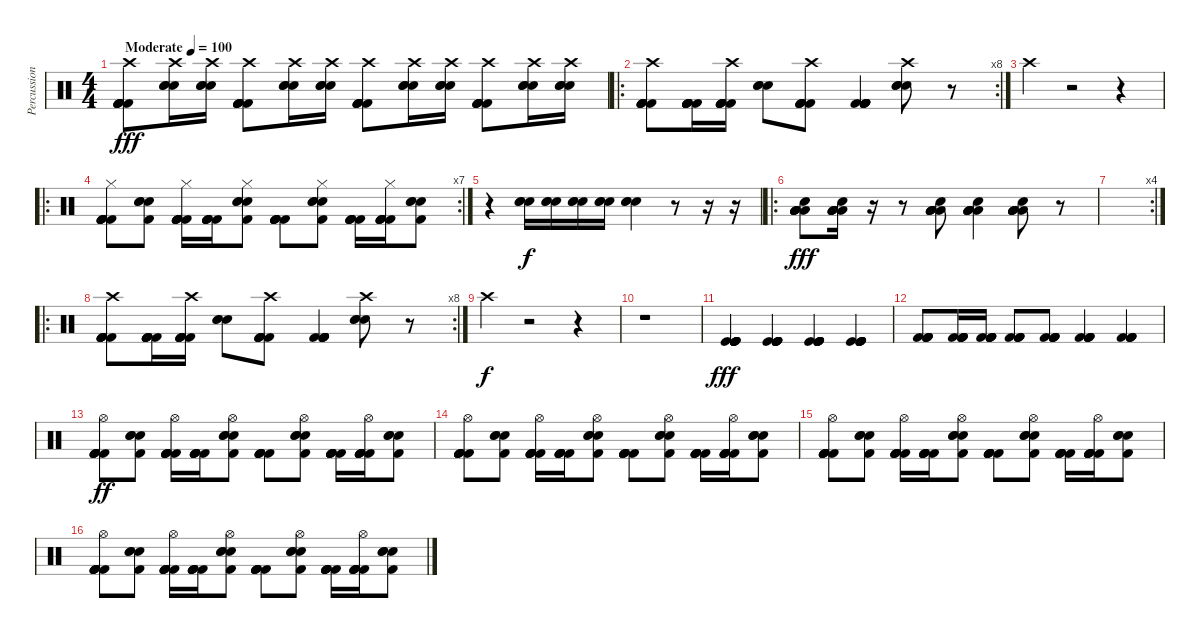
\track ("Percussion" "Percussion") {instrument percussion}
\staff {score}
\articulation defaults
\ts (4 4)
\tempo (100 "Moderate")
\clef neutral
\ks c
("Crash high (hit)" "Kick (hit) 2" "Kick (hit) 2" "Kick (hit) 2" "Kick (hit) 2" "Kick (hit) 2").8{dy fff} ("Crash high (hit)" "Snare (hit) 2" "Snare (hit) 2" "Snare (hit) 2").16 ("Crash high (hit)" "Snare (hit) 2" "Snare (hit) 2" "Snare (hit) 2").16 ("Crash high (hit)" "Kick (hit) 2" "Kick (hit) 2" "Kick (hit) 2" "Kick (hit) 2" "Kick (hit) 2").8 ("Crash high (hit)" "Snare (hit) 2" "Snare (hit) 2" "Snare (hit) 2").16 ("Crash high (hit)" "Snare (hit) 2" "Snare (hit) 2" "Snare (hit) 2").16 ("Crash high (hit)" "Kick (hit) 2" "Kick (hit) 2" "Kick (hit) 2" "Kick (hit) 2" "Kick (hit) 2").8 ("Crash high (hit)" "Snare (hit) 2" "Snare (hit) 2" "Snare (hit) 2").16 ("Crash high (hit)" "Snare (hit) 2" "Snare (hit) 2" "Snare (hit) 2").16 ("Crash high (hit)" "Kick (hit) 2" "Kick (hit) 2" "Kick (hit) 2" "Kick (hit) 2" "Kick (hit) 2").8 ("Crash high (hit)" "Snare (hit) 2" "Snare (hit) 2" "Snare (hit) 2").16 ("Crash high (hit)" "Snare (hit) 2" "Snare (hit) 2" "Snare (hit) 2").16 |
\ro
\rc 8
("Crash high (hit)" "Kick (hit) 2" "Kick (hit) 2" "Kick (hit) 2" "Kick (hit) 2" "Kick (hit) 2").8 ("Kick (hit) 2" "Kick (hit) 2" "Kick (hit) 2" "Kick (hit) 2" "Kick (hit) 2" "Kick (hit) 2").16 ("Crash high (hit)" "Kick (hit) 2" "Kick (hit) 2" "Kick (hit) 2" "Kick (hit) 2" "Kick (hit) 2").16 ("Snare (hit) 2" "Snare (hit) 2" "Snare (hit) 2").8 ("Crash high (hit)" "Kick (hit) 2" "Kick (hit) 2" "Kick (hit) 2" "Kick (hit) 2" "Kick (hit) 2").8 ("Kick (hit) 2" "Kick (hit) 2" "Kick (hit) 2" "Kick (hit) 2" "Kick (hit) 2" "Kick (hit) 2").4 ("Crash high (hit)" "Snare (hit) 2" "Snare (hit) 2" "Snare (hit) 2").8 r.8 |
"Crash high (hit)".4 r.2 r.4 |
\ro
\rc 7
("Hi-Hat (closed)" "Kick (hit) 2" "Kick (hit) 2" "Kick (hit) 2" "Kick (hit) 2" "Kick (hit) 2").8 ("Kick (hit) 2" "Snare (hit) 2" "Snare (hit) 2" "Snare (hit) 2").8 ("Hi-Hat (closed)" "Kick (hit) 2" "Kick (hit) 2" "Kick (hit) 2" "Kick (hit) 2" "Kick (hit) 2").16 ("Kick (hit) 2" "Kick (hit) 2" "Kick (hit) 2" "Kick (hit) 2" "Kick (hit) 2").16 ("Hi-Hat (closed)" "Kick (hit) 2" "Snare (hit) 2" "Snare (hit) 2" "Snare (hit) 2").8 ("Kick (hit) 2" "Kick (hit) 2" "Kick (hit) 2" "Kick (hit) 2" "Kick (hit) 2").8 ("Hi-Hat (closed)" "Kick (hit) 2" "Snare (hit) 2" "Snare (hit) 2" "Snare (hit) 2").8 ("Kick (hit) 2" "Kick (hit) 2" "Kick (hit) 2" "Kick (hit) 2" "Kick (hit) 2").16 ("Hi-Hat (closed)" "Kick (hit) 2" "Kick (hit) 2" "Kick (hit) 2" "Kick (hit) 2" "Kick (hit) 2").16 ("Kick (hit) 2" "Snare (hit) 2" "Snare (hit) 2" "Snare (hit) 2").8 |
r.4 ("Snare (hit) 2" "Snare (hit) 2" "Snare (hit) 2").16{dy f} ("Snare (hit) 2" "Snare (hit) 2" "Snare (hit) 2").16 ("Snare (hit) 2" "Snare (hit) 2" "Snare (hit) 2").16 ("Snare (hit) 2" "Snare (hit) 2" "Snare (hit) 2").16 ("Snare (hit) 2" "Snare (hit) 2" "Snare (hit) 2").4 r.8 r.16 r.16 |
\ro
("Low Tom (hit)" "Low Tom (hit)" "Low Tom (hit)" "Low Tom (hit)" "Low Tom (hit)" "Snare (hit) 2").8{dy fff} ("Low Tom (hit)" "Low Tom (hit)" "Low Tom (hit)" "Low Tom (hit)" "Low Tom (hit)" "Snare (hit) 2").16 r.16 r.8 ("Low Tom (hit)" "Low Tom (hit)" "Low Tom (hit)" "Low Tom (hit)" "Low Tom (hit)" "Snare (hit) 2").8 ("Low Tom (hit)" "Low Tom (hit)" "Low Tom (hit)" "Low Tom (hit)" "Low Tom (hit)" "Snare (hit) 2").4 ("Low Tom (hit)" "Low Tom (hit)" "Low Tom (hit)" "Low Tom (hit)" "Low Tom (hit)" "Snare (hit) 2").8 r.8 |
\rc 4
|
\ro
\rc 8
("Crash high (hit)" "Kick (hit) 2" "Kick (hit) 2" "Kick (hit) 2" "Kick (hit) 2" "Kick (hit) 2").8 ("Kick (hit) 2" "Kick (hit) 2" "Kick (hit) 2" "Kick (hit) 2" "Kick (hit) 2" "Kick (hit) 2").16 ("Crash high (hit)" "Kick (hit) 2" "Kick (hit) 2" "Kick (hit) 2" "Kick (hit) 2" "Kick (hit) 2").16 ("Snare (hit) 2" "Snare (hit) 2" "Snare (hit) 2").8 ("Crash high (hit)" "Kick (hit) 2" "Kick (hit) 2" "Kick (hit) 2" "Kick (hit) 2" "Kick (hit) 2").8 ("Kick (hit) 2" "Kick (hit) 2" "Kick (hit) 2" "Kick (hit) 2" "Kick (hit) 2" "Kick (hit) 2").4 ("Crash high (hit)" "Snare (hit) 2" "Snare (hit) 2" "Snare (hit) 2").8 r.8 |
"Crash high (hit)".4{dy f} r.2 r.4 |
r.1 |
("Kick (hit)" "Kick (hit)" "Kick (hit)" "Kick (hit)" "Kick (hit)" "Kick (hit)").4{dy fff} ("Kick (hit)" "Kick (hit)" "Kick (hit)" "Kick (hit)" "Kick (hit)" "Kick (hit)").4 ("Kick (hit)" "Kick (hit)" "Kick (hit)" "Kick (hit)" "Kick (hit)" "Kick (hit)").4 ("Kick (hit)" "Kick (hit)" "Kick (hit)" "Kick (hit)" "Kick (hit)" "Kick (hit)").4 |
("Kick (hit) 2" "Kick (hit) 2" "Kick (hit) 2" "Kick (hit) 2" "Kick (hit) 2").8 ("Kick (hit) 2" "Kick (hit) 2" "Kick (hit) 2" "Kick (hit) 2" "Kick (hit) 2").16 ("Kick (hit) 2" "Kick (hit) 2" "Kick (hit) 2" "Kick (hit) 2" "Kick (hit) 2").16 ("Kick (hit) 2" "Kick (hit) 2" "Kick (hit) 2" "Kick (hit) 2").8 ("Kick (hit) 2" "Kick (hit) 2" "Kick (hit) 2" "Kick (hit) 2" "Kick (hit) 2").8 ("Kick (hit) 2" "Kick (hit) 2" "Kick (hit) 2" "Kick (hit) 2" "Kick (hit) 2").4 ("Kick (hit) 2" "Kick (hit) 2" "Kick (hit) 2" "Kick (hit) 2").4 |
("Hi-Hat (open)" "Kick (hit) 2" "Kick (hit) 2" "Kick (hit) 2" "Kick (hit) 2" "Kick (hit) 2").8{dy ff} ("Kick (hit) 2" "Snare (hit) 2" "Snare (hit) 2" "Snare (hit) 2").8 ("Hi-Hat (open)" "Kick (hit) 2" "Kick (hit) 2" "Kick (hit) 2" "Kick (hit) 2" "Kick (hit) 2").16 ("Kick (hit) 2" "Kick (hit) 2" "Kick (hit) 2" "Kick (hit) 2" "Kick (hit) 2").16 ("Hi-Hat (open)" "Kick (hit) 2" "Snare (hit) 2" "Snare (hit) 2" "Snare (hit) 2").8 ("Kick (hit) 2" "Kick (hit) 2" "Kick (hit) 2" "Kick (hit) 2" "Kick (hit) 2").8 ("Hi-Hat (open)" "Kick (hit) 2" "Snare (hit) 2" "Snare (hit) 2" "Snare (hit) 2").8 ("Kick (hit) 2" "Kick (hit) 2" "Kick (hit) 2" "Kick (hit) 2" "Kick (hit) 2").16 ("Hi-Hat (open)" "Kick (hit) 2" "Kick (hit) 2" "Kick (hit) 2" "Kick (hit) 2" "Kick (hit) 2").16 ("Kick (hit) 2" "Snare (hit) 2" "Snare (hit) 2" "Snare (hit) 2").8 |
("Hi-Hat (open)" "Kick (hit) 2" "Kick (hit) 2" "Kick (hit) 2" "Kick (hit) 2" "Kick (hit) 2").8 ("Kick (hit) 2" "Snare (hit) 2" "Snare (hit) 2" "Snare (hit) 2").8 ("Hi-Hat (open)" "Kick (hit) 2" "Kick (hit) 2" "Kick (hit) 2" "Kick (hit) 2" "Kick (hit) 2").16 ("Kick (hit) 2" "Kick (hit) 2" "Kick (hit) 2" "Kick (hit) 2" "Kick (hit) 2").16 ("Hi-Hat (open)" "Kick (hit) 2" "Snare (hit) 2" "Snare (hit) 2" "Snare (hit) 2").8 ("Kick (hit) 2" "Kick (hit) 2" "Kick (hit) 2" "Kick (hit) 2" "Kick (hit) 2").8 ("Hi-Hat (open)" "Kick (hit) 2" "Snare (hit) 2" "Snare (hit) 2" "Snare (hit) 2").8 ("Kick (hit) 2" "Kick (hit) 2" "Kick (hit) 2" "Kick (hit) 2" "Kick (hit) 2").16 ("Hi-Hat (open)" "Kick (hit) 2" "Kick (hit) 2" "Kick (hit) 2" "Kick (hit) 2" "Kick (hit) 2").16 ("Kick (hit) 2" "Snare (hit) 2" "Snare (hit) 2" "Snare (hit) 2").8 |
("Hi-Hat (open)" "Kick (hit) 2" "Kick (hit) 2" "Kick (hit) 2" "Kick (hit) 2" "Kick (hit) 2").8 ("Kick (hit) 2" "Snare (hit) 2" "Snare (hit) 2" "Snare (hit) 2").8 ("Hi-Hat (open)" "Kick (hit) 2" "Kick (hit) 2" "Kick (hit) 2" "Kick (hit) 2" "Kick (hit) 2").16 ("Kick (hit) 2" "Kick (hit) 2" "Kick (hit) 2" "Kick (hit) 2" "Kick (hit) 2").16 ("Hi-Hat (open)" "Kick (hit) 2" "Snare (hit) 2" "Snare (hit) 2" "Snare (hit) 2").8 ("Kick (hit) 2" "Kick (hit) 2" "Kick (hit) 2" "Kick (hit) 2" "Kick (hit) 2").8 ("Hi-Hat (open)" "Kick (hit) 2" "Snare (hit) 2" "Snare (hit) 2" "Snare (hit) 2").8 ("Kick (hit) 2" "Kick (hit) 2" "Kick (hit) 2" "Kick (hit) 2" "Kick (hit) 2").16 ("Hi-Hat (open)" "Kick (hit) 2" "Kick (hit) 2" "Kick (hit) 2" "Kick (hit) 2" "Kick (hit) 2").16 ("Kick (hit) 2" "Snare (hit) 2" "Snare (hit) 2" "Snare (hit) 2").8 |
("Hi-Hat (open)" "Kick (hit) 2" "Kick (hit) 2" "Kick (hit) 2" "Kick (hit) 2" "Kick (hit) 2").8 ("Kick (hit) 2" "Snare (hit) 2" "Snare (hit) 2" "Snare (hit) 2").8 ("Hi-Hat (open)" "Kick (hit) 2" "Kick (hit) 2" "Kick (hit) 2" "Kick (hit) 2" "Kick (hit) 2").16 ("Kick (hit) 2" "Kick (hit) 2" "Kick (hit) 2" "Kick (hit) 2" "Kick (hit) 2").16 ("Hi-Hat (open)" "Kick (hit) 2" "Snare (hit) 2" "Snare (hit) 2" "Snare (hit) 2").8 ("Kick (hit) 2" "Kick (hit) 2" "Kick (hit) 2" "Kick (hit) 2" "Kick (hit) 2").8 ("Hi-Hat (open)" "Kick (hit) 2" "Snare (hit) 2" "Snare (hit) 2" "Snare (hit) 2").8 ("Kick (hit) 2" "Kick (hit) 2" "Kick (hit) 2" "Kick (hit) 2" "Kick (hit) 2").16 ("Hi-Hat (open)" "Kick (hit) 2" "Kick (hit) 2" "Kick (hit) 2" "Kick (hit) 2" "Kick (hit) 2").16 ("Kick (hit) 2" "Snare (hit) 2" "Snare (hit) 2" "Snare (hit) 2").8
